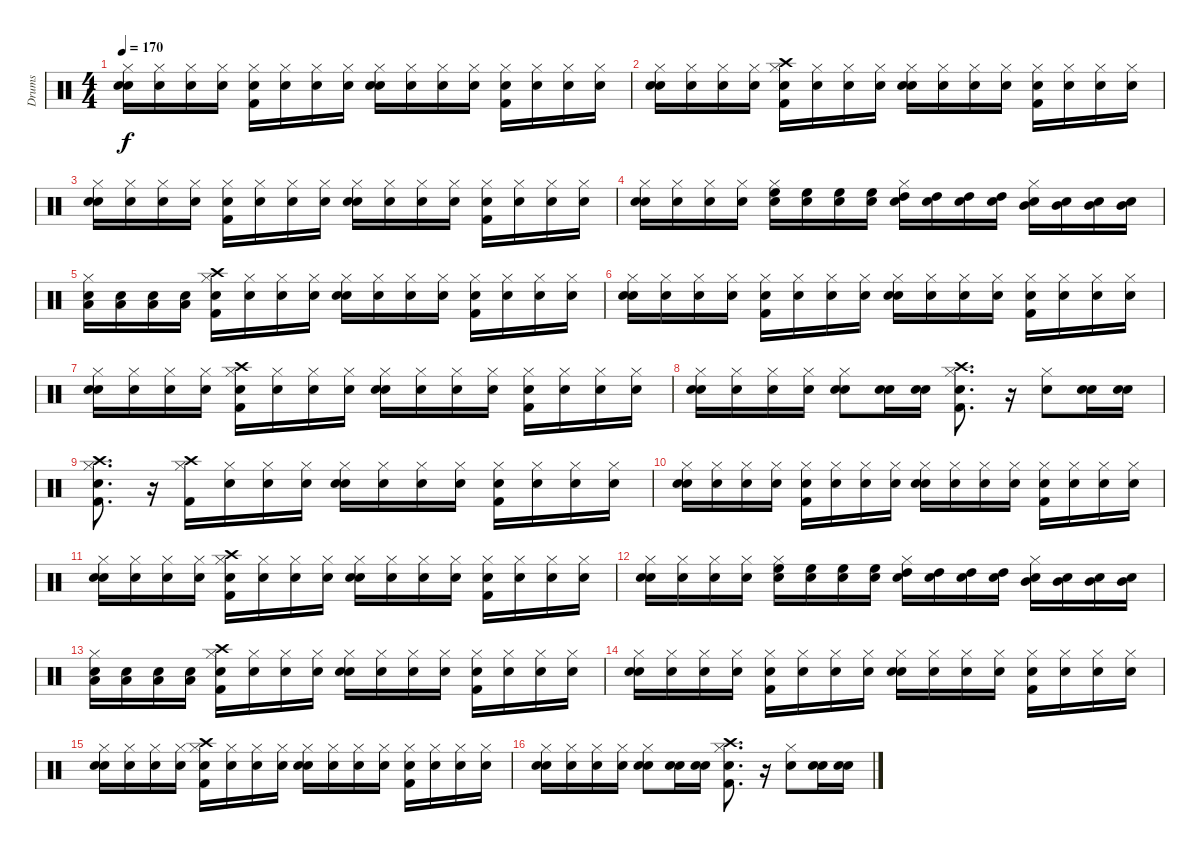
\track ("Drums" "Drums") {instrument percussion}
\staff {score}
\articulation defaults
\ts (4 4)
\tempo 170
\clef neutral
\ks c
("Snare (hit)" "Snare (hit) 2" "Hi-Hat (closed)").16{dy f} ("Snare (hit)" "Hi-Hat (closed)").16 ("Snare (hit)" "Hi-Hat (closed)").16 ("Snare (hit)" "Hi-Hat (closed)").16 ("Snare (hit)" "Kick (hit) 2" "Hi-Hat (closed)").16 ("Snare (hit)" "Hi-Hat (closed)").16 ("Snare (hit)" "Hi-Hat (closed)").16 ("Snare (hit)" "Hi-Hat (closed)").16 ("Snare (hit)" "Snare (hit) 2" "Hi-Hat (closed)").16 ("Snare (hit)" "Hi-Hat (closed)").16 ("Snare (hit)" "Hi-Hat (closed)").16 ("Snare (hit)" "Hi-Hat (closed)").16 ("Snare (hit)" "Kick (hit) 2" "Hi-Hat (closed)").16 ("Snare (hit)" "Hi-Hat (closed)").16 ("Snare (hit)" "Hi-Hat (closed)").16 ("Snare (hit)" "Hi-Hat (closed)").16 |
("Snare (hit)" "Snare (hit) 2" "Hi-Hat (closed)").16 ("Snare (hit)" "Hi-Hat (closed)").16 ("Snare (hit)" "Hi-Hat (closed)").16 ("Snare (hit)" "Hi-Hat (closed)").16 ("Snare (hit)" "Kick (hit) 2" "Hi-Hat (closed)" "Crash high (hit)").16 ("Snare (hit)" "Hi-Hat (closed)").16 ("Snare (hit)" "Hi-Hat (closed)").16 ("Snare (hit)" "Hi-Hat (closed)").16 ("Snare (hit)" "Snare (hit) 2" "Hi-Hat (closed)").16 ("Snare (hit)" "Hi-Hat (closed)").16 ("Snare (hit)" "Hi-Hat (closed)").16 ("Snare (hit)" "Hi-Hat (closed)").16 ("Snare (hit)" "Kick (hit) 2" "Hi-Hat (closed)").16 ("Snare (hit)" "Hi-Hat (closed)").16 ("Snare (hit)" "Hi-Hat (closed)").16 ("Snare (hit)" "Hi-Hat (closed)").16 |
("Snare (hit)" "Snare (hit) 2" "Hi-Hat (closed)").16 ("Snare (hit)" "Hi-Hat (closed)").16 ("Snare (hit)" "Hi-Hat (closed)").16 ("Snare (hit)" "Hi-Hat (closed)").16 ("Snare (hit)" "Kick (hit) 2" "Hi-Hat (closed)").16 ("Snare (hit)" "Hi-Hat (closed)").16 ("Snare (hit)" "Hi-Hat (closed)").16 ("Snare (hit)" "Hi-Hat (closed)").16 ("Snare (hit)" "Snare (hit) 2" "Hi-Hat (closed)").16 ("Snare (hit)" "Hi-Hat (closed)").16 ("Snare (hit)" "Hi-Hat (closed)").16 ("Snare (hit)" "Hi-Hat (closed)").16 ("Snare (hit)" "Kick (hit) 2" "Hi-Hat (closed)").16 ("Snare (hit)" "Hi-Hat (closed)").16 ("Snare (hit)" "Hi-Hat (closed)").16 ("Snare (hit)" "Hi-Hat (closed)").16 |
("Snare (hit)" "Snare (hit) 2" "Hi-Hat (closed)").16 ("Snare (hit)" "Hi-Hat (closed)").16 ("Snare (hit)" "Hi-Hat (closed)").16 ("Snare (hit)" "Hi-Hat (closed)").16 ("Snare (hit)" "Hi-Hat (closed)" "High Floor Tom (hit)").16 ("Snare (hit)" "High Floor Tom (hit)").16 ("Snare (hit)" "High Floor Tom (hit)").16 ("Snare (hit)" "High Floor Tom (hit)").16 ("Snare (hit)" "Hi-Hat (closed)" "High Tom (hit)").16 ("Snare (hit)" "High Tom (hit)").16 ("Snare (hit)" "High Tom (hit)").16 ("Snare (hit)" "High Tom (hit)").16 ("Snare (hit)" "Hi-Hat (closed)" "Mid Tom (hit)").16 ("Snare (hit)" "Mid Tom (hit)").16 ("Snare (hit)" "Mid Tom (hit)").16 ("Snare (hit)" "Mid Tom (hit)").16 |
("Snare (hit)" "Hi-Hat (closed)" "Low Tom (hit)").16 ("Snare (hit)" "Low Tom (hit)").16 ("Snare (hit)" "Low Tom (hit)").16 ("Snare (hit)" "Low Tom (hit)").16 ("Snare (hit)" "Kick (hit) 2" "Hi-Hat (closed)" "Crash high (hit)").16 ("Snare (hit)" "Hi-Hat (closed)").16 ("Snare (hit)" "Hi-Hat (closed)").16 ("Snare (hit)" "Hi-Hat (closed)").16 ("Snare (hit)" "Snare (hit) 2" "Hi-Hat (closed)").16 ("Snare (hit)" "Hi-Hat (closed)").16 ("Snare (hit)" "Hi-Hat (closed)").16 ("Snare (hit)" "Hi-Hat (closed)").16 ("Snare (hit)" "Kick (hit) 2" "Hi-Hat (closed)").16 ("Snare (hit)" "Hi-Hat (closed)").16 ("Snare (hit)" "Hi-Hat (closed)").16 ("Snare (hit)" "Hi-Hat (closed)").16 |
("Snare (hit)" "Snare (hit) 2" "Hi-Hat (closed)").16 ("Snare (hit)" "Hi-Hat (closed)").16 ("Snare (hit)" "Hi-Hat (closed)").16 ("Snare (hit)" "Hi-Hat (closed)").16 ("Snare (hit)" "Kick (hit) 2" "Hi-Hat (closed)").16 ("Snare (hit)" "Hi-Hat (closed)").16 ("Snare (hit)" "Hi-Hat (closed)").16 ("Snare (hit)" "Hi-Hat (closed)").16 ("Snare (hit)" "Snare (hit) 2" "Hi-Hat (closed)").16 ("Snare (hit)" "Hi-Hat (closed)").16 ("Snare (hit)" "Hi-Hat (closed)").16 ("Snare (hit)" "Hi-Hat (closed)").16 ("Snare (hit)" "Kick (hit) 2" "Hi-Hat (closed)").16 ("Snare (hit)" "Hi-Hat (closed)").16 ("Snare (hit)" "Hi-Hat (closed)").16 ("Snare (hit)" "Hi-Hat (closed)").16 |
("Snare (hit)" "Snare (hit) 2" "Hi-Hat (closed)").16 ("Snare (hit)" "Hi-Hat (closed)").16 ("Snare (hit)" "Hi-Hat (closed)").16 ("Snare (hit)" "Hi-Hat (closed)").16 ("Snare (hit)" "Kick (hit) 2" "Hi-Hat (closed)" "Crash high (hit)").16 ("Snare (hit)" "Hi-Hat (closed)").16 ("Snare (hit)" "Hi-Hat (closed)").16 ("Snare (hit)" "Hi-Hat (closed)").16 ("Snare (hit)" "Snare (hit) 2" "Hi-Hat (closed)").16 ("Snare (hit)" "Hi-Hat (closed)").16 ("Snare (hit)" "Hi-Hat (closed)").16 ("Snare (hit)" "Hi-Hat (closed)").16 ("Snare (hit)" "Kick (hit) 2" "Hi-Hat (closed)").16 ("Snare (hit)" "Hi-Hat (closed)").16 ("Snare (hit)" "Hi-Hat (closed)").16 ("Snare (hit)" "Hi-Hat (closed)").16 |
("Snare (hit)" "Snare (hit) 2" "Hi-Hat (closed)").16 ("Snare (hit)" "Hi-Hat (closed)").16 ("Snare (hit)" "Hi-Hat (closed)").16 ("Snare (hit)" "Hi-Hat (closed)").16 ("Snare (hit)" "Snare (hit) 2" "Hi-Hat (closed)").8 ("Snare (hit)" "Snare (hit) 2").16 ("Snare (hit)" "Snare (hit) 2").16 ("Snare (hit)" "Kick (hit) 2" "Hi-Hat (closed)" "Crash high (hit)").8{d} r.16 ("Snare (hit) 2" "Hi-Hat (closed)").8 ("Snare (hit)" "Snare (hit) 2").16 ("Snare (hit)" "Snare (hit) 2").16 |
("Snare (hit)" "Kick (hit) 2" "Hi-Hat (closed)" "Crash high (hit)").8{d} r.16 ("Kick (hit) 2" "Hi-Hat (closed)" "Crash high (hit)").16 ("Snare (hit)" "Hi-Hat (closed)").16 ("Snare (hit)" "Hi-Hat (closed)").16 ("Snare (hit)" "Hi-Hat (closed)").16 ("Snare (hit)" "Snare (hit) 2" "Hi-Hat (closed)").16 ("Snare (hit)" "Hi-Hat (closed)").16 ("Snare (hit)" "Hi-Hat (closed)").16 ("Snare (hit)" "Hi-Hat (closed)").16 ("Snare (hit)" "Kick (hit) 2" "Hi-Hat (closed)").16 ("Snare (hit)" "Hi-Hat (closed)").16 ("Snare (hit)" "Hi-Hat (closed)").16 ("Snare (hit)" "Hi-Hat (closed)").16 |
("Snare (hit)" "Snare (hit) 2" "Hi-Hat (closed)").16 ("Snare (hit)" "Hi-Hat (closed)").16 ("Snare (hit)" "Hi-Hat (closed)").16 ("Snare (hit)" "Hi-Hat (closed)").16 ("Snare (hit)" "Kick (hit) 2" "Hi-Hat (closed)").16 ("Snare (hit)" "Hi-Hat (closed)").16 ("Snare (hit)" "Hi-Hat (closed)").16 ("Snare (hit)" "Hi-Hat (closed)").16 ("Snare (hit)" "Snare (hit) 2" "Hi-Hat (closed)").16 ("Snare (hit)" "Hi-Hat (closed)").16 ("Snare (hit)" "Hi-Hat (closed)").16 ("Snare (hit)" "Hi-Hat (closed)").16 ("Snare (hit)" "Kick (hit) 2" "Hi-Hat (closed)").16 ("Snare (hit)" "Hi-Hat (closed)").16 ("Snare (hit)" "Hi-Hat (closed)").16 ("Snare (hit)" "Hi-Hat (closed)").16 |
("Snare (hit)" "Snare (hit) 2" "Hi-Hat (closed)").16 ("Snare (hit)" "Hi-Hat (closed)").16 ("Snare (hit)" "Hi-Hat (closed)").16 ("Snare (hit)" "Hi-Hat (closed)").16 ("Snare (hit)" "Kick (hit) 2" "Hi-Hat (closed)" "Crash high (hit)").16 ("Snare (hit)" "Hi-Hat (closed)").16 ("Snare (hit)" "Hi-Hat (closed)").16 ("Snare (hit)" "Hi-Hat (closed)").16 ("Snare (hit)" "Snare (hit) 2" "Hi-Hat (closed)").16 ("Snare (hit)" "Hi-Hat (closed)").16 ("Snare (hit)" "Hi-Hat (closed)").16 ("Snare (hit)" "Hi-Hat (closed)").16 ("Snare (hit)" "Kick (hit) 2" "Hi-Hat (closed)").16 ("Snare (hit)" "Hi-Hat (closed)").16 ("Snare (hit)" "Hi-Hat (closed)").16 ("Snare (hit)" "Hi-Hat (closed)").16 |
("Snare (hit)" "Snare (hit) 2" "Hi-Hat (closed)").16 ("Snare (hit)" "Hi-Hat (closed)").16 ("Snare (hit)" "Hi-Hat (closed)").16 ("Snare (hit)" "Hi-Hat (closed)").16 ("Snare (hit)" "Hi-Hat (closed)" "High Floor Tom (hit)").16 ("Snare (hit)" "High Floor Tom (hit)").16 ("Snare (hit)" "High Floor Tom (hit)").16 ("Snare (hit)" "High Floor Tom (hit)").16 ("Snare (hit)" "Hi-Hat (closed)" "High Tom (hit)").16 ("Snare (hit)" "High Tom (hit)").16 ("Snare (hit)" "High Tom (hit)").16 ("Snare (hit)" "High Tom (hit)").16 ("Snare (hit)" "Hi-Hat (closed)" "Mid Tom (hit)").16 ("Snare (hit)" "Mid Tom (hit)").16 ("Snare (hit)" "Mid Tom (hit)").16 ("Snare (hit)" "Mid Tom (hit)").16 |
("Snare (hit)" "Hi-Hat (closed)" "Low Tom (hit)").16 ("Snare (hit)" "Low Tom (hit)").16 ("Snare (hit)" "Low Tom (hit)").16 ("Snare (hit)" "Low Tom (hit)").16 ("Snare (hit)" "Kick (hit) 2" "Hi-Hat (closed)" "Crash high (hit)").16 ("Snare (hit)" "Hi-Hat (closed)").16 ("Snare (hit)" "Hi-Hat (closed)").16 ("Snare (hit)" "Hi-Hat (closed)").16 ("Snare (hit)" "Snare (hit) 2" "Hi-Hat (closed)").16 ("Snare (hit)" "Hi-Hat (closed)").16 ("Snare (hit)" "Hi-Hat (closed)").16 ("Snare (hit)" "Hi-Hat (closed)").16 ("Snare (hit)" "Kick (hit) 2" "Hi-Hat (closed)").16 ("Snare (hit)" "Hi-Hat (closed)").16 ("Snare (hit)" "Hi-Hat (closed)").16 ("Snare (hit)" "Hi-Hat (closed)").16 |
("Snare (hit)" "Snare (hit) 2" "Hi-Hat (closed)").16 ("Snare (hit)" "Hi-Hat (closed)").16 ("Snare (hit)" "Hi-Hat (closed)").16 ("Snare (hit)" "Hi-Hat (closed)").16 ("Snare (hit)" "Kick (hit) 2" "Hi-Hat (closed)").16 ("Snare (hit)" "Hi-Hat (closed)").16 ("Snare (hit)" "Hi-Hat (closed)").16 ("Snare (hit)" "Hi-Hat (closed)").16 ("Snare (hit)" "Snare (hit) 2" "Hi-Hat (closed)").16 ("Snare (hit)" "Hi-Hat (closed)").16 ("Snare (hit)" "Hi-Hat (closed)").16 ("Snare (hit)" "Hi-Hat (closed)").16 ("Snare (hit)" "Kick (hit) 2" "Hi-Hat (closed)").16 ("Snare (hit)" "Hi-Hat (closed)").16 ("Snare (hit)" "Hi-Hat (closed)").16 ("Snare (hit)" "Hi-Hat (closed)").16 |
("Snare (hit)" "Snare (hit) 2" "Hi-Hat (closed)").16 ("Snare (hit)" "Hi-Hat (closed)").16 ("Snare (hit)" "Hi-Hat (closed)").16 ("Snare (hit)" "Hi-Hat (closed)").16 ("Snare (hit)" "Kick (hit) 2" "Hi-Hat (closed)" "Crash high (hit)").16 ("Snare (hit)" "Hi-Hat (closed)").16 ("Snare (hit)" "Hi-Hat (closed)").16 ("Snare (hit)" "Hi-Hat (closed)").16 ("Snare (hit)" "Snare (hit) 2" "Hi-Hat (closed)").16 ("Snare (hit)" "Hi-Hat (closed)").16 ("Snare (hit)" "Hi-Hat (closed)").16 ("Snare (hit)" "Hi-Hat (closed)").16 ("Snare (hit)" "Kick (hit) 2" "Hi-Hat (closed)").16 ("Snare (hit)" "Hi-Hat (closed)").16 ("Snare (hit)" "Hi-Hat (closed)").16 ("Snare (hit)" "Hi-Hat (closed)").16 |
("Snare (hit)" "Snare (hit) 2" "Hi-Hat (closed)").16 ("Snare (hit)" "Hi-Hat (closed)").16 ("Snare (hit)" "Hi-Hat (closed)").16 ("Snare (hit)" "Hi-Hat (closed)").16 ("Snare (hit)" "Snare (hit) 2" "Hi-Hat (closed)").8 ("Snare (hit)" "Snare (hit) 2").16 ("Snare (hit)" "Snare (hit) 2").16 ("Snare (hit)" "Kick (hit) 2" "Hi-Hat (closed)" "Crash high (hit)").8{d} r.16 ("Snare (hit) 2" "Hi-Hat (closed)").8 ("Snare (hit)" "Snare (hit) 2").16 ("Snare (hit)" "Snare (hit) 2").16
